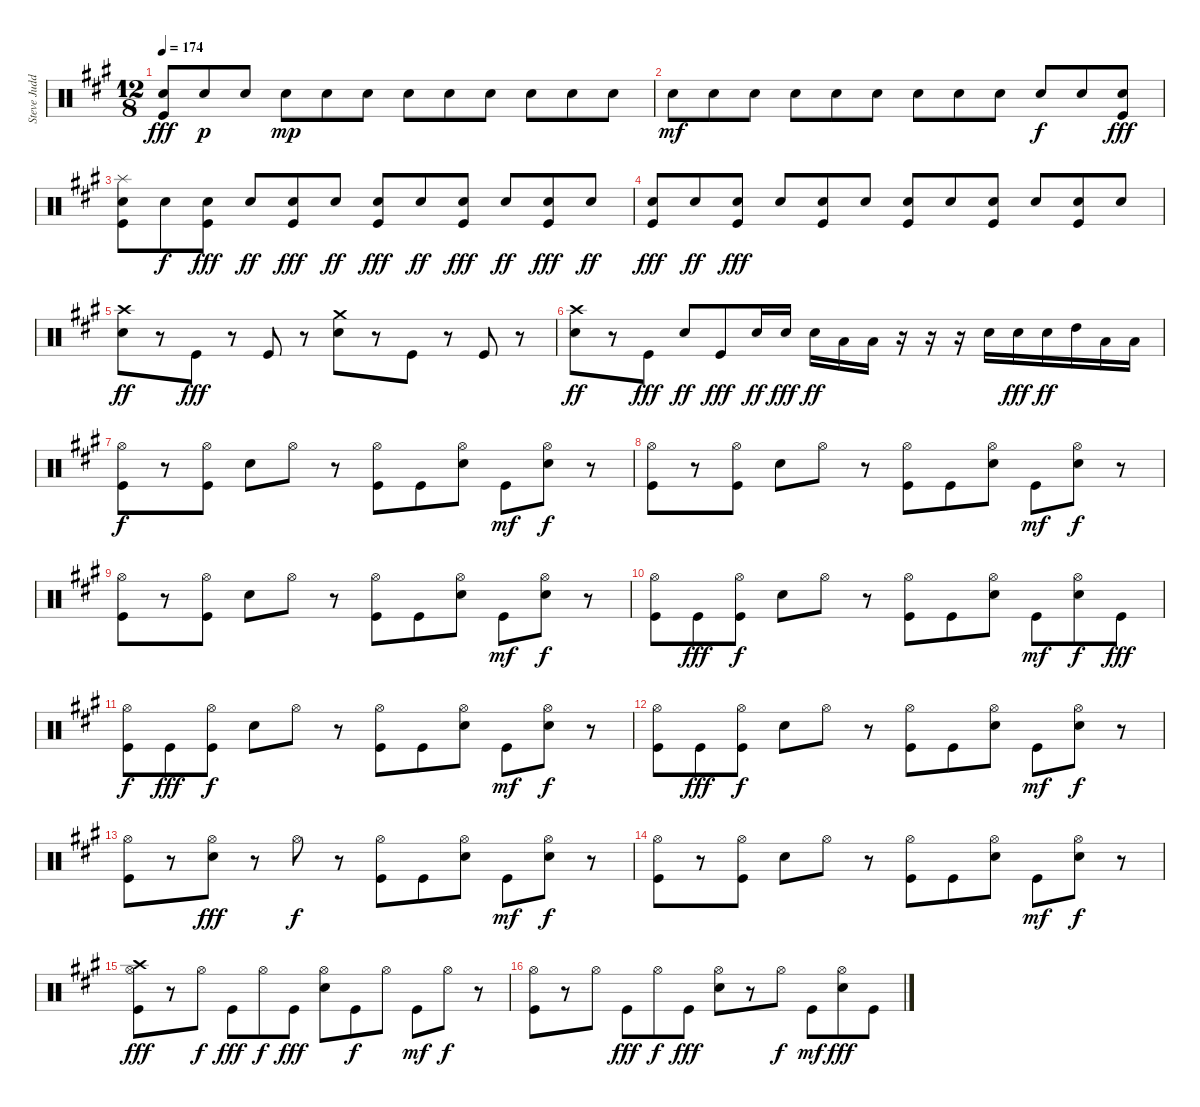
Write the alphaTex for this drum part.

\track ("Steve Judd (Drums)" "Steve Judd") {instrument percussion}
\staff {score}
\articulation defaults
\ts (12 8)
\tempo 174
\clef neutral
\ks a
("Snare (hit) 2" "Kick (hit)").8{dy fff} "Snare (hit) 2".8{dy p} "Snare (hit) 2".8 "Snare (hit) 2".8{dy mp} "Snare (hit) 2".8 "Snare (hit) 2".8 "Snare (hit) 2".8 "Snare (hit) 2".8 "Snare (hit) 2".8 "Snare (hit) 2".8 "Snare (hit) 2".8 "Snare (hit) 2".8 |
"Snare (hit) 2".8{dy mf} "Snare (hit) 2".8 "Snare (hit) 2".8 "Snare (hit) 2".8 "Snare (hit) 2".8 "Snare (hit) 2".8 "Snare (hit) 2".8 "Snare (hit) 2".8 "Snare (hit) 2".8 "Snare (hit) 2".8{dy f} "Snare (hit) 2".8 ("Snare (hit) 2" "Kick (hit)").8{dy fff} |
("Splash (hit)" "Snare (hit) 2" "Kick (hit)").8 "Snare (hit) 2".8{dy f} ("Snare (hit) 2" "Kick (hit)").8{dy fff} "Snare (hit) 2".8{dy ff} ("Snare (hit) 2" "Kick (hit)").8{dy fff} "Snare (hit) 2".8{dy ff} ("Snare (hit) 2" "Kick (hit)").8{dy fff} "Snare (hit) 2".8{dy ff} ("Snare (hit) 2" "Kick (hit)").8{dy fff} "Snare (hit) 2".8{dy ff} ("Snare (hit) 2" "Kick (hit)").8{dy fff} "Snare (hit) 2".8{dy ff} |
("Snare (hit) 2" "Kick (hit)").8{dy fff} "Snare (hit) 2".8{dy ff} ("Snare (hit) 2" "Kick (hit)").8{dy fff} "Snare (hit) 2".8 ("Snare (hit) 2" "Kick (hit)").8 "Snare (hit) 2".8 ("Snare (hit) 2" "Kick (hit)").8 "Snare (hit) 2".8 ("Snare (hit) 2" "Kick (hit)").8 "Snare (hit) 2".8 ("Snare (hit) 2" "Kick (hit)").8 "Snare (hit) 2".8 |
("Crash high (hit)" "Snare (hit) 2").8{dy ff} r.8 "Kick (hit)".8{dy fff} r.8 "Kick (hit)".8 r.8 ("Crash medium (hit)" "Snare (hit) 2").8 r.8 "Kick (hit)".8 r.8 "Kick (hit)".8 r.8 |
("Crash high (hit)" "Snare (hit) 2").8{dy ff} r.8 "Kick (hit)".8{dy fff} "Snare (hit) 2".8{dy ff} "Kick (hit)".8{dy fff} "Snare (hit) 2".16{dy ff} "Snare (hit) 2".16{dy fff} "Snare (hit) 2".16{dy ff} "Low Tom (hit)".16 "Low Floor Tom (hit)".16 r.16 r.16 r.16 "Snare (hit) 2".16 "Snare (hit) 2".16{dy fff} "Snare (hit) 2".16{dy ff} "High Tom (hit)".16 "Low Tom (hit)".16 "Low Floor Tom (hit)".16 |
("Hi-Hat (open)" "Kick (hit)").8{dy f} r.8 ("Hi-Hat (open)" "Kick (hit)").8 "Snare (hit) 2".8 "Hi-Hat (open)".8 r.8 ("Hi-Hat (open)" "Kick (hit)").8 "Kick (hit)".8 ("Hi-Hat (open)" "Snare (hit) 2").8 "Kick (hit)".8{dy mf} ("Hi-Hat (open)" "Snare (hit) 2").8{dy f} r.8 |
("Hi-Hat (open)" "Kick (hit)").8 r.8 ("Hi-Hat (open)" "Kick (hit)").8 "Snare (hit) 2".8 "Hi-Hat (open)".8 r.8 ("Hi-Hat (open)" "Kick (hit)").8 "Kick (hit)".8 ("Hi-Hat (open)" "Snare (hit) 2").8 "Kick (hit)".8{dy mf} ("Hi-Hat (open)" "Snare (hit) 2").8{dy f} r.8 |
("Hi-Hat (open)" "Kick (hit)").8 r.8 ("Hi-Hat (open)" "Kick (hit)").8 "Snare (hit) 2".8 "Hi-Hat (open)".8 r.8 ("Hi-Hat (open)" "Kick (hit)").8 "Kick (hit)".8 ("Hi-Hat (open)" "Snare (hit) 2").8 "Kick (hit)".8{dy mf} ("Hi-Hat (open)" "Snare (hit) 2").8{dy f} r.8 |
("Hi-Hat (open)" "Kick (hit)").8 "Kick (hit)".8{dy fff} ("Hi-Hat (open)" "Kick (hit)").8{dy f} "Snare (hit) 2".8 "Hi-Hat (open)".8 r.8 ("Hi-Hat (open)" "Kick (hit)").8 "Kick (hit)".8 ("Hi-Hat (open)" "Snare (hit) 2").8 "Kick (hit)".8{dy mf} ("Hi-Hat (open)" "Snare (hit) 2").8{dy f} "Kick (hit)".8{dy fff} |
("Hi-Hat (open)" "Kick (hit)").8{dy f} "Kick (hit)".8{dy fff} ("Hi-Hat (open)" "Kick (hit)").8{dy f} "Snare (hit) 2".8 "Hi-Hat (open)".8 r.8 ("Hi-Hat (open)" "Kick (hit)").8 "Kick (hit)".8 ("Hi-Hat (open)" "Snare (hit) 2").8 "Kick (hit)".8{dy mf} ("Hi-Hat (open)" "Snare (hit) 2").8{dy f} r.8 |
("Hi-Hat (open)" "Kick (hit)").8 "Kick (hit)".8{dy fff} ("Hi-Hat (open)" "Kick (hit)").8{dy f} "Snare (hit) 2".8 "Hi-Hat (open)".8 r.8 ("Hi-Hat (open)" "Kick (hit)").8 "Kick (hit)".8 ("Hi-Hat (open)" "Snare (hit) 2").8 "Kick (hit)".8{dy mf} ("Hi-Hat (open)" "Snare (hit) 2").8{dy f} r.8 |
("Hi-Hat (open)" "Kick (hit)").8 r.8 ("Hi-Hat (open)" "Snare (hit) 2").8{dy fff} r.8 "Hi-Hat (open)".8{dy f} r.8 ("Hi-Hat (open)" "Kick (hit)").8 "Kick (hit)".8 ("Hi-Hat (open)" "Snare (hit) 2").8 "Kick (hit)".8{dy mf} ("Hi-Hat (open)" "Snare (hit) 2").8{dy f} r.8 |
("Hi-Hat (open)" "Kick (hit)").8 r.8 ("Hi-Hat (open)" "Kick (hit)").8 "Snare (hit) 2".8 "Hi-Hat (open)".8 r.8 ("Hi-Hat (open)" "Kick (hit)").8 "Kick (hit)".8 ("Hi-Hat (open)" "Snare (hit) 2").8 "Kick (hit)".8{dy mf} ("Hi-Hat (open)" "Snare (hit) 2").8{dy f} r.8 |
("Crash high (hit)" "Hi-Hat (open)" "Kick (hit)").8{dy fff} r.8 "Hi-Hat (open)".8{dy f} "Kick (hit)".8{dy fff} "Hi-Hat (open)".8{dy f} "Kick (hit)".8{dy fff} ("Hi-Hat (open)" "Snare (hit) 2").8 "Kick (hit)".8{dy f} "Hi-Hat (open)".8 "Kick (hit)".8{dy mf} "Hi-Hat (open)".8{dy f} r.8 |
("Hi-Hat (open)" "Kick (hit)").8 r.8 "Hi-Hat (open)".8 "Kick (hit)".8{dy fff} "Hi-Hat (open)".8{dy f} "Kick (hit)".8{dy fff} ("Hi-Hat (open)" "Snare (hit) 2").8 r.8 "Hi-Hat (open)".8{dy f} "Kick (hit)".8{dy mf} ("Hi-Hat (open)" "Snare (hit) 2").8{dy fff} "Kick (hit)".8
